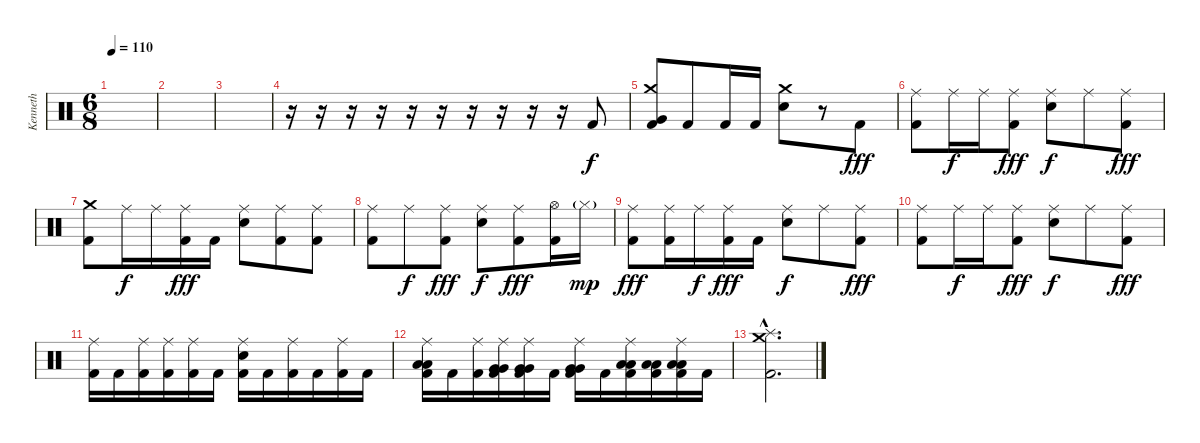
\track ("Kenneth " "Kenneth ") {instrument percussion}
\staff {score}
\articulation defaults
\ts (6 8)
\tempo 110
\clef neutral
\ks c
|
|
|
r.16 r.16 r.16 r.16 r.16 r.16 r.16 r.16 r.16 r.16 "Kick (hit) 2".8 |
("Crash medium (hit)" "Very Low Tom (hit)" "Kick (hit) 2").8 "Kick (hit) 2".8 "Kick (hit) 2".16 "Kick (hit) 2".16 ("Crash medium (hit)" "Electric Snare (hit)").8{dy f} r.8 "Kick (hit) 2".8{dy fff} |
("Ride (middle)" "Kick (hit) 2").8 "Ride (middle)".16{dy f} "Ride (middle)".16 ("Ride (middle)" "Kick (hit) 2").8{dy fff} ("Ride (middle)" "Electric Snare (hit)").8{dy f} "Ride (middle)".8 ("Ride (middle)" "Kick (hit) 2").8{dy fff} |
("Crash medium (hit)" "Kick (hit) 2").8 "Ride (middle)".16{dy f} "Ride (middle)".16 ("Ride (middle)" "Kick (hit) 2").16{dy fff} "Kick (hit) 2".16 ("Ride (middle)" "Electric Snare (hit)").8 ("Ride (middle)" "Kick (hit) 2").8 ("Ride (middle)" "Kick (hit) 2").8 |
("Ride (middle)" "Kick (hit) 2").8 "Ride (middle)".8{dy f} ("Ride (middle)" "Kick (hit) 2").8{dy fff} ("Ride (middle)" "Electric Snare (hit)").8{dy f} ("Ride (middle)" "Kick (hit) 2").8{dy fff} ("Hi-Hat (open)" "Kick (hit) 2").16 "Hi-Hat (closed)"{g}.16{dy mp} |
("Ride (middle)" "Kick (hit) 2").8{dy fff} ("Ride (middle)" "Kick (hit) 2").16 "Ride (middle)".16{dy f} ("Ride (middle)" "Kick (hit) 2").16{dy fff} "Kick (hit) 2".16 ("Ride (middle)" "Electric Snare (hit)").8{dy f} "Ride (middle)".8 ("Ride (middle)" "Kick (hit) 2").8{dy fff} |
("Ride (middle)" "Kick (hit) 2").8 "Ride (middle)".16{dy f} "Ride (middle)".16 ("Ride (middle)" "Kick (hit) 2").8{dy fff} ("Ride (middle)" "Electric Snare (hit)").8{dy f} "Ride (middle)".8 ("Ride (middle)" "Kick (hit) 2").8{dy fff} |
("Ride (middle)" "Kick (hit) 2").16 "Kick (hit) 2".16 ("Ride (middle)" "Kick (hit) 2").16 ("Ride (middle)" "Kick (hit) 2").16 ("Ride (middle)" "Kick (hit) 2").16 "Kick (hit) 2".16 ("Ride (middle)" "Electric Snare (hit)" "Kick (hit) 2").16 "Kick (hit) 2".16 ("Ride (middle)" "Kick (hit) 2").16 "Kick (hit) 2".16 ("Ride (middle)" "Kick (hit) 2").16 "Kick (hit) 2".16 |
("Ride (middle)" "Low Tom (hit)" "Low Tom (hit)" "Kick (hit) 2").16 "Kick (hit) 2".16 ("Ride (middle)" "Kick (hit) 2").16 ("Ride (middle)" "Very Low Tom (hit)" "Very Low Tom (hit)" "Kick (hit) 2").16 ("Ride (middle)" "Very Low Tom (hit)" "Very Low Tom (hit)" "Kick (hit) 2").16 "Kick (hit) 2".16 ("Ride (middle)" "Very Low Tom (hit)" "Very Low Tom (hit)" "Kick (hit) 2").16 "Kick (hit) 2".16 ("Ride (middle)" "Low Floor Tom (hit)" "Low Floor Tom (hit)" "Kick (hit) 2").16 ("Low Floor Tom (hit)" "Low Floor Tom (hit)" "Kick (hit) 2").16 ("Ride (middle)" "Low Floor Tom (hit)" "Low Floor Tom (hit)" "Kick (hit) 2").16 "Kick (hit) 2".16 |
("Splash (hit)"{hac} "Crash medium (hit)"{hac} "Kick (hit) 2"{hac}).2{d}
